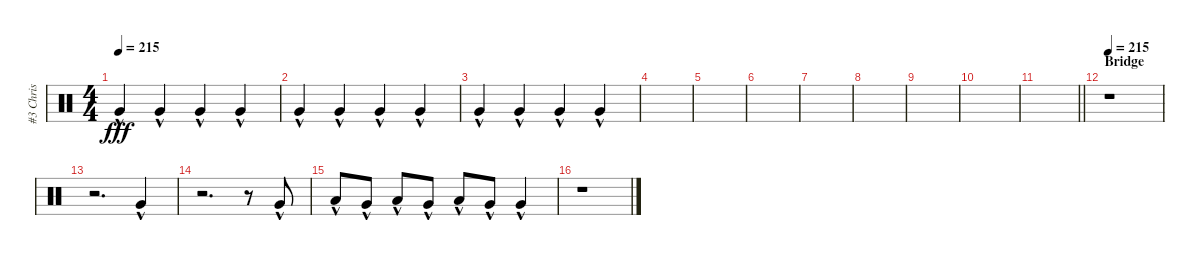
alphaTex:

\track ("#3 Chris" "#3 Chris") {instrument percussion}
\staff {score}
\articulation defaults
\ts (4 4)
\tempo 215
\clef neutral
\ks c "Very Low Tom (hit)"{hac}.4{dy fff} "Very Low Tom (hit)"{hac}.4 "Very Low Tom (hit)"{hac}.4 "Very Low Tom (hit)"{hac}.4
|
"Very Low Tom (hit)"{hac}.4 "Very Low Tom (hit)"{hac}.4 "Very Low Tom (hit)"{hac}.4 "Very Low Tom (hit)"{hac}.4 |
"Very Low Tom (hit)"{hac}.4 "Very Low Tom (hit)"{hac}.4 "Very Low Tom (hit)"{hac}.4 "Very Low Tom (hit)"{hac}.4 |
|
|
|
|
|
|
|
\barLineRight lightlight
|
\section ("" "Bridge")
\tempo 215
r.1 |
r.2{d} "Very Low Tom (hit)"{hac}.4 |
r.2{d} r.8 "Very Low Tom (hit)"{hac}.8 |
"Low Floor Tom (hit)"{hac}.8 "Very Low Tom (hit)"{hac}.8 "Low Floor Tom (hit)"{hac}.8 "Very Low Tom (hit)"{hac}.8 "Low Floor Tom (hit)"{hac}.8 "Very Low Tom (hit)"{hac}.8 "Very Low Tom (hit)"{hac}.4 |
r.1
